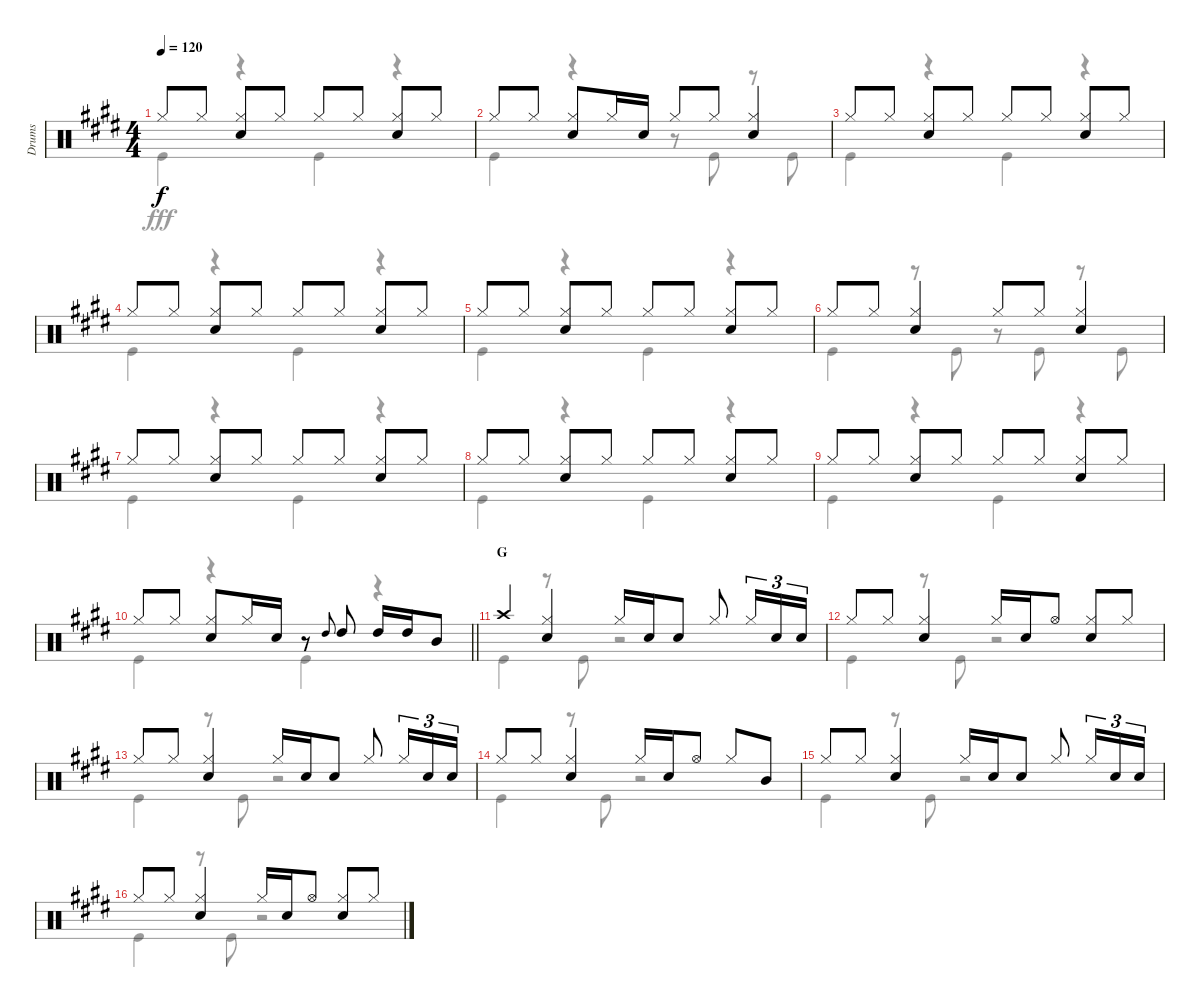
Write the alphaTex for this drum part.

\track ("Drums" "Drums") {instrument percussion}
\staff {score}
\articulation defaults
\voice
\ts (4 4)
\tempo 120
\clef neutral
\ks e "Hi-Hat (closed)".8{dy f} "Hi-Hat (closed)".8
("Hi-Hat (closed)" "Snare (hit) 2").8 "Hi-Hat (closed)".8 "Hi-Hat (closed)".8 "Hi-Hat (closed)".8 ("Hi-Hat (closed)" "Snare (hit) 2").8 "Hi-Hat (closed)".8 |
"Hi-Hat (closed)".8 "Hi-Hat (closed)".8 ("Hi-Hat (closed)" "Snare (hit) 2").8 "Hi-Hat (closed)".16 "Snare (hit) 2".16 "Hi-Hat (closed)".8 "Hi-Hat (closed)".8 ("Hi-Hat (closed)" "Snare (hit) 2").4 |
"Hi-Hat (closed)".8 "Hi-Hat (closed)".8 ("Hi-Hat (closed)" "Snare (hit) 2").8 "Hi-Hat (closed)".8 "Hi-Hat (closed)".8 "Hi-Hat (closed)".8 ("Hi-Hat (closed)" "Snare (hit) 2").8 "Hi-Hat (closed)".8 |
"Hi-Hat (closed)".8 "Hi-Hat (closed)".8 ("Hi-Hat (closed)" "Snare (hit) 2").8 "Hi-Hat (closed)".8 "Hi-Hat (closed)".8 "Hi-Hat (closed)".8 ("Hi-Hat (closed)" "Snare (hit) 2").8 "Hi-Hat (closed)".8 |
"Hi-Hat (closed)".8 "Hi-Hat (closed)".8 ("Hi-Hat (closed)" "Snare (hit) 2").8 "Hi-Hat (closed)".8 "Hi-Hat (closed)".8 "Hi-Hat (closed)".8 ("Hi-Hat (closed)" "Snare (hit) 2").8 "Hi-Hat (closed)".8 |
"Hi-Hat (closed)".8 "Hi-Hat (closed)".8 ("Hi-Hat (closed)" "Snare (hit) 2").4 "Hi-Hat (closed)".8 "Hi-Hat (closed)".8 ("Hi-Hat (closed)" "Snare (hit) 2").4 |
"Hi-Hat (closed)".8 "Hi-Hat (closed)".8 ("Hi-Hat (closed)" "Snare (hit) 2").8 "Hi-Hat (closed)".8 "Hi-Hat (closed)".8 "Hi-Hat (closed)".8 ("Hi-Hat (closed)" "Snare (hit) 2").8 "Hi-Hat (closed)".8 |
"Hi-Hat (closed)".8 "Hi-Hat (closed)".8 ("Hi-Hat (closed)" "Snare (hit) 2").8 "Hi-Hat (closed)".8 "Hi-Hat (closed)".8 "Hi-Hat (closed)".8 ("Hi-Hat (closed)" "Snare (hit) 2").8 "Hi-Hat (closed)".8 |
"Hi-Hat (closed)".8 "Hi-Hat (closed)".8 ("Hi-Hat (closed)" "Snare (hit) 2").8 "Hi-Hat (closed)".8 "Hi-Hat (closed)".8 "Hi-Hat (closed)".8 ("Hi-Hat (closed)" "Snare (hit) 2").8 "Hi-Hat (closed)".8 |
\barLineRight lightlight "Hi-Hat (closed)".8 "Hi-Hat (closed)".8
("Hi-Hat (closed)" "Snare (hit) 2").8 "Hi-Hat (closed)".16 "Snare (hit) 2".16 r.8 "High Tom (hit)".8{gr onbeat} "High Tom (hit)".8 "High Tom (hit)".16 "High Tom (hit)".16 "Mid Tom (hit)".8 |
\section ("" "G")
"Crash high (hit)".4 ("Hi-Hat (closed)" "Snare (hit) 2").4 "Hi-Hat (closed)".16 "Snare (hit) 2".16 "Snare (hit) 2".8 "Hi-Hat (closed)".8 "Hi-Hat (closed)".16{tu (3 2)} "Snare (hit) 2".16{tu (3 2)} "Snare (hit) 2".16{tu (3 2)} |
"Hi-Hat (closed)".8 "Hi-Hat (closed)".8 ("Hi-Hat (closed)" "Snare (hit) 2").4 "Hi-Hat (closed)".16 "Snare (hit) 2".16 "Hi-Hat (open)".8 ("Hi-Hat (closed)" "Snare (hit) 2").8 "Hi-Hat (closed)".8 |
"Hi-Hat (closed)".8 "Hi-Hat (closed)".8 ("Hi-Hat (closed)" "Snare (hit) 2").4 "Hi-Hat (closed)".16 "Snare (hit) 2".16 "Snare (hit) 2".8 "Hi-Hat (closed)".8 "Hi-Hat (closed)".16{tu (3 2)} "Snare (hit) 2".16{tu (3 2)} "Snare (hit) 2".16{tu (3 2)} |
"Hi-Hat (closed)".8 "Hi-Hat (closed)".8 ("Hi-Hat (closed)" "Snare (hit) 2").4 "Hi-Hat (closed)".16 "Snare (hit) 2".16 "Hi-Hat (open)".8 "Hi-Hat (closed)".8 "Mid Tom (hit)".8 |
"Hi-Hat (closed)".8 "Hi-Hat (closed)".8 ("Hi-Hat (closed)" "Snare (hit) 2").4 "Hi-Hat (closed)".16 "Snare (hit) 2".16 "Snare (hit) 2".8 "Hi-Hat (closed)".8 "Hi-Hat (closed)".16{tu (3 2)} "Snare (hit) 2".16{tu (3 2)} "Snare (hit) 2".16{tu (3 2)} |
"Hi-Hat (closed)".8 "Hi-Hat (closed)".8 ("Hi-Hat (closed)" "Snare (hit) 2").4 "Hi-Hat (closed)".16 "Snare (hit) 2".16 "Hi-Hat (open)".8 ("Hi-Hat (closed)" "Snare (hit) 2").8 "Hi-Hat (closed)".8
\voice
\clef neutral
\ottava regular
\simile none
\ks e "Kick (hit)".4{dy fff}
r.4 "Kick (hit)".4 r.4 |
"Kick (hit)".4 r.4 r.8 "Kick (hit)".8 r.8 "Kick (hit)".8 |
"Kick (hit)".4 r.4 "Kick (hit)".4 r.4 |
"Kick (hit)".4 r.4 "Kick (hit)".4 r.4 |
"Kick (hit)".4 r.4 "Kick (hit)".4 r.4 |
"Kick (hit)".4 r.8 "Kick (hit)".8 r.8 "Kick (hit)".8 r.8 "Kick (hit)".8 |
"Kick (hit)".4 r.4 "Kick (hit)".4 r.4 |
"Kick (hit)".4 r.4 "Kick (hit)".4 r.4 |
"Kick (hit)".4 r.4 "Kick (hit)".4 r.4 |
\barLineRight lightlight "Kick (hit)".4
r.4 "Kick (hit)".4 r.4 |
"Kick (hit)".4 r.8 "Kick (hit)".8 r.2 |
"Kick (hit)".4 r.8 "Kick (hit)".8 r.2 |
"Kick (hit)".4 r.8 "Kick (hit)".8 r.2 |
"Kick (hit)".4 r.8 "Kick (hit)".8 r.2 |
"Kick (hit)".4 r.8 "Kick (hit)".8 r.2 |
"Kick (hit)".4 r.8 "Kick (hit)".8 r.2
